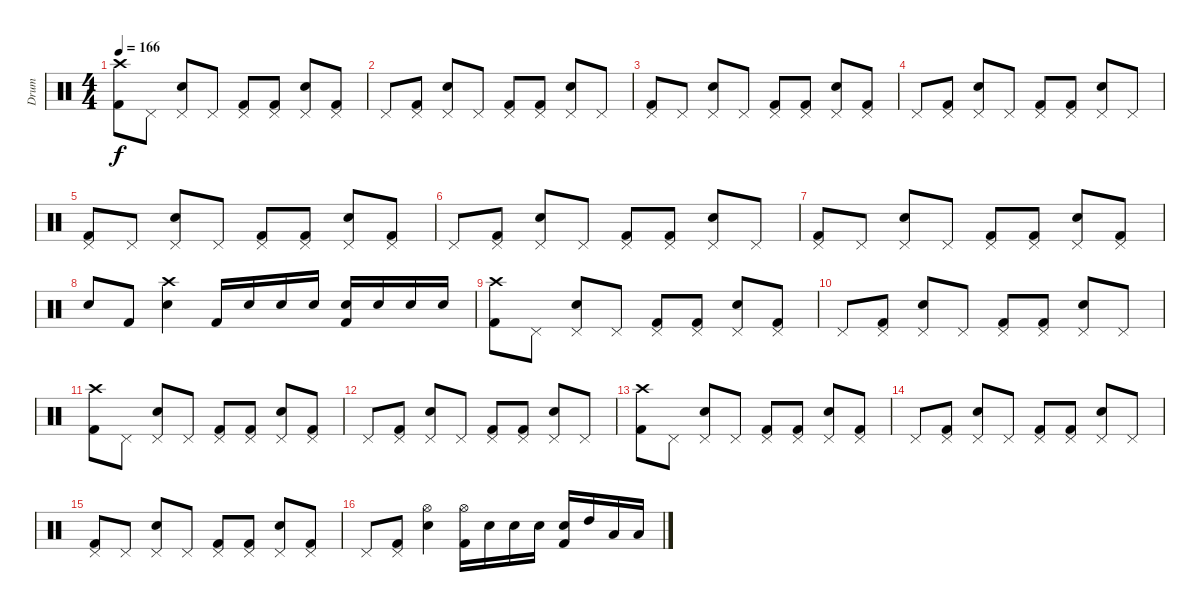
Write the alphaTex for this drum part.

\track ("Drum" "Drum") {instrument percussion}
\staff {score}
\articulation defaults
\ts (4 4)
\tempo 166
\clef neutral
\ks c
("Crash high (hit)" "Kick (hit) 2").8{dy f} "Pedal Hi-Hat (hit)".8 ("Pedal Hi-Hat (hit)" "Electric Snare (hit)").8 "Pedal Hi-Hat (hit)".8 ("Pedal Hi-Hat (hit)" "Kick (hit) 2").8 ("Pedal Hi-Hat (hit)" "Kick (hit) 2").8 ("Pedal Hi-Hat (hit)" "Electric Snare (hit)").8 ("Pedal Hi-Hat (hit)" "Kick (hit) 2").8 |
"Pedal Hi-Hat (hit)".8 ("Pedal Hi-Hat (hit)" "Kick (hit) 2").8 ("Pedal Hi-Hat (hit)" "Electric Snare (hit)").8 "Pedal Hi-Hat (hit)".8 ("Pedal Hi-Hat (hit)" "Kick (hit) 2").8 ("Pedal Hi-Hat (hit)" "Kick (hit) 2").8 ("Pedal Hi-Hat (hit)" "Electric Snare (hit)").8 "Pedal Hi-Hat (hit)".8 |
("Pedal Hi-Hat (hit)" "Kick (hit) 2").8 "Pedal Hi-Hat (hit)".8 ("Pedal Hi-Hat (hit)" "Electric Snare (hit)").8 "Pedal Hi-Hat (hit)".8 ("Pedal Hi-Hat (hit)" "Kick (hit) 2").8 ("Pedal Hi-Hat (hit)" "Kick (hit) 2").8 ("Pedal Hi-Hat (hit)" "Electric Snare (hit)").8 ("Pedal Hi-Hat (hit)" "Kick (hit) 2").8 |
"Pedal Hi-Hat (hit)".8 ("Pedal Hi-Hat (hit)" "Kick (hit) 2").8 ("Pedal Hi-Hat (hit)" "Electric Snare (hit)").8 "Pedal Hi-Hat (hit)".8 ("Pedal Hi-Hat (hit)" "Kick (hit) 2").8 ("Pedal Hi-Hat (hit)" "Kick (hit) 2").8 ("Pedal Hi-Hat (hit)" "Electric Snare (hit)").8 "Pedal Hi-Hat (hit)".8 |
("Pedal Hi-Hat (hit)" "Kick (hit) 2").8 "Pedal Hi-Hat (hit)".8 ("Pedal Hi-Hat (hit)" "Electric Snare (hit)").8 "Pedal Hi-Hat (hit)".8 ("Pedal Hi-Hat (hit)" "Kick (hit) 2").8 ("Pedal Hi-Hat (hit)" "Kick (hit) 2").8 ("Pedal Hi-Hat (hit)" "Electric Snare (hit)").8 ("Pedal Hi-Hat (hit)" "Kick (hit) 2").8 |
"Pedal Hi-Hat (hit)".8 ("Pedal Hi-Hat (hit)" "Kick (hit) 2").8 ("Pedal Hi-Hat (hit)" "Electric Snare (hit)").8 "Pedal Hi-Hat (hit)".8 ("Pedal Hi-Hat (hit)" "Kick (hit) 2").8 ("Pedal Hi-Hat (hit)" "Kick (hit) 2").8 ("Pedal Hi-Hat (hit)" "Electric Snare (hit)").8 "Pedal Hi-Hat (hit)".8 |
("Pedal Hi-Hat (hit)" "Kick (hit) 2").8 "Pedal Hi-Hat (hit)".8 ("Pedal Hi-Hat (hit)" "Electric Snare (hit)").8 "Pedal Hi-Hat (hit)".8 ("Pedal Hi-Hat (hit)" "Kick (hit) 2").8 ("Pedal Hi-Hat (hit)" "Kick (hit) 2").8 ("Pedal Hi-Hat (hit)" "Electric Snare (hit)").8 ("Pedal Hi-Hat (hit)" "Kick (hit) 2").8 |
"Electric Snare (hit)".8 "Kick (hit) 2".8 ("Crash high (hit)" "Electric Snare (hit)").4 "Kick (hit) 2".16 "Electric Snare (hit)".16 "Electric Snare (hit)".16 "Electric Snare (hit)".16 ("Electric Snare (hit)" "Kick (hit) 2").16 "Electric Snare (hit)".16 "Electric Snare (hit)".16 "Electric Snare (hit)".16 |
("Crash high (hit)" "Kick (hit) 2").8 "Pedal Hi-Hat (hit)".8 ("Pedal Hi-Hat (hit)" "Electric Snare (hit)").8 "Pedal Hi-Hat (hit)".8 ("Pedal Hi-Hat (hit)" "Kick (hit) 2").8 ("Pedal Hi-Hat (hit)" "Kick (hit) 2").8 ("Pedal Hi-Hat (hit)" "Electric Snare (hit)").8 ("Pedal Hi-Hat (hit)" "Kick (hit) 2").8 |
"Pedal Hi-Hat (hit)".8 ("Pedal Hi-Hat (hit)" "Kick (hit) 2").8 ("Pedal Hi-Hat (hit)" "Electric Snare (hit)").8 "Pedal Hi-Hat (hit)".8 ("Pedal Hi-Hat (hit)" "Kick (hit) 2").8 ("Pedal Hi-Hat (hit)" "Kick (hit) 2").8 ("Pedal Hi-Hat (hit)" "Electric Snare (hit)").8 "Pedal Hi-Hat (hit)".8 |
("Crash high (hit)" "Kick (hit) 2").8 "Pedal Hi-Hat (hit)".8 ("Pedal Hi-Hat (hit)" "Electric Snare (hit)").8 "Pedal Hi-Hat (hit)".8 ("Pedal Hi-Hat (hit)" "Kick (hit) 2").8 ("Pedal Hi-Hat (hit)" "Kick (hit) 2").8 ("Pedal Hi-Hat (hit)" "Electric Snare (hit)").8 ("Pedal Hi-Hat (hit)" "Kick (hit) 2").8 |
"Pedal Hi-Hat (hit)".8 ("Pedal Hi-Hat (hit)" "Kick (hit) 2").8 ("Pedal Hi-Hat (hit)" "Electric Snare (hit)").8 "Pedal Hi-Hat (hit)".8 ("Pedal Hi-Hat (hit)" "Kick (hit) 2").8 ("Pedal Hi-Hat (hit)" "Kick (hit) 2").8 ("Pedal Hi-Hat (hit)" "Electric Snare (hit)").8 "Pedal Hi-Hat (hit)".8 |
("Crash high (hit)" "Kick (hit) 2").8 "Pedal Hi-Hat (hit)".8 ("Pedal Hi-Hat (hit)" "Electric Snare (hit)").8 "Pedal Hi-Hat (hit)".8 ("Pedal Hi-Hat (hit)" "Kick (hit) 2").8 ("Pedal Hi-Hat (hit)" "Kick (hit) 2").8 ("Pedal Hi-Hat (hit)" "Electric Snare (hit)").8 ("Pedal Hi-Hat (hit)" "Kick (hit) 2").8 |
"Pedal Hi-Hat (hit)".8 ("Pedal Hi-Hat (hit)" "Kick (hit) 2").8 ("Pedal Hi-Hat (hit)" "Electric Snare (hit)").8 "Pedal Hi-Hat (hit)".8 ("Pedal Hi-Hat (hit)" "Kick (hit) 2").8 ("Pedal Hi-Hat (hit)" "Kick (hit) 2").8 ("Pedal Hi-Hat (hit)" "Electric Snare (hit)").8 "Pedal Hi-Hat (hit)".8 |
("Pedal Hi-Hat (hit)" "Kick (hit) 2").8 "Pedal Hi-Hat (hit)".8 ("Pedal Hi-Hat (hit)" "Electric Snare (hit)").8 "Pedal Hi-Hat (hit)".8 ("Pedal Hi-Hat (hit)" "Kick (hit) 2").8 ("Pedal Hi-Hat (hit)" "Kick (hit) 2").8 ("Pedal Hi-Hat (hit)" "Electric Snare (hit)").8 ("Pedal Hi-Hat (hit)" "Kick (hit) 2").8 |
"Pedal Hi-Hat (hit)".8 ("Pedal Hi-Hat (hit)" "Kick (hit) 2").8 ("Hi-Hat (open)" "Electric Snare (hit)").4 ("Hi-Hat (open)" "Kick (hit) 2").16 "Electric Snare (hit)".16 "Electric Snare (hit)".16 "Electric Snare (hit)".16 ("Electric Snare (hit)" "Kick (hit) 2").16 "High Tom (hit)".16 "Low Tom (hit)".16 "Low Tom (hit)".16
